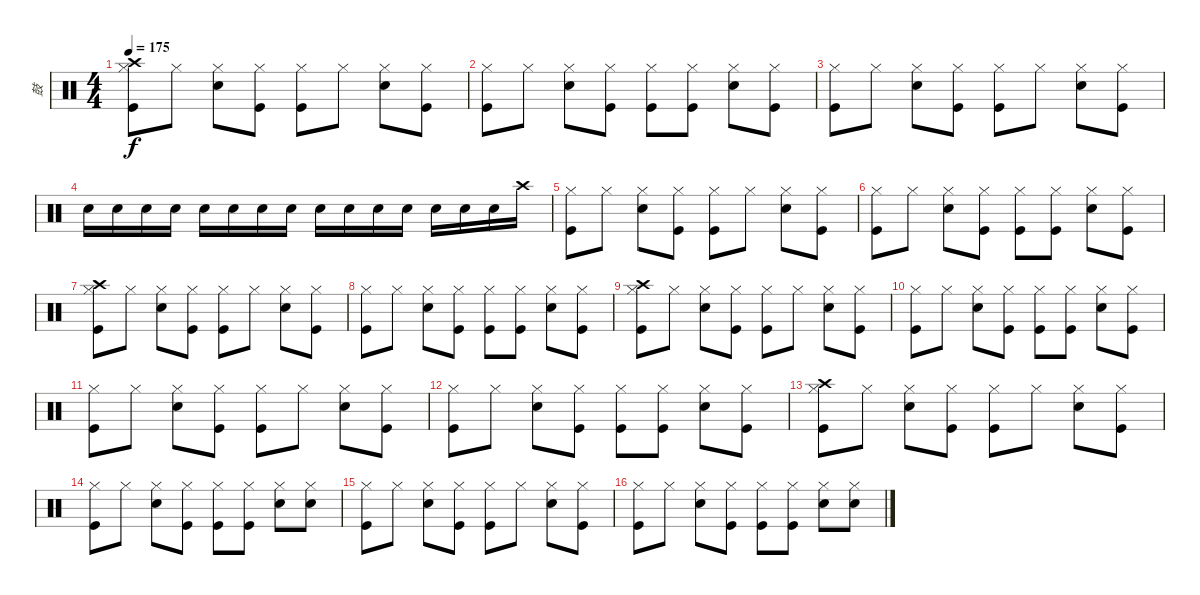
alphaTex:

\track ("鼓" "鼓") {instrument percussion}
\staff {score}
\articulation defaults
\ts (4 4)
\tempo 175
\clef neutral
\ks c
("Crash high (hit)" "Hi-Hat (closed)" "Kick (hit)").8{dy f} "Hi-Hat (closed)".8 ("Hi-Hat (closed)" "Snare (hit) 2").8 ("Hi-Hat (closed)" "Kick (hit)").8 ("Hi-Hat (closed)" "Kick (hit)").8 "Hi-Hat (closed)".8 ("Hi-Hat (closed)" "Snare (hit) 2").8 ("Hi-Hat (closed)" "Kick (hit)").8 |
("Hi-Hat (closed)" "Kick (hit)").8 "Hi-Hat (closed)".8 ("Hi-Hat (closed)" "Snare (hit) 2").8 ("Hi-Hat (closed)" "Kick (hit)").8 ("Hi-Hat (closed)" "Kick (hit)").8 ("Hi-Hat (closed)" "Kick (hit)").8 ("Hi-Hat (closed)" "Snare (hit) 2").8 ("Hi-Hat (closed)" "Kick (hit)").8 |
("Hi-Hat (closed)" "Kick (hit)").8 "Hi-Hat (closed)".8 ("Hi-Hat (closed)" "Snare (hit) 2").8 ("Hi-Hat (closed)" "Kick (hit)").8 ("Hi-Hat (closed)" "Kick (hit)").8 "Hi-Hat (closed)".8 ("Hi-Hat (closed)" "Snare (hit) 2").8 ("Hi-Hat (closed)" "Kick (hit)").8 |
"Snare (hit) 2".16 "Snare (hit) 2".16 "Snare (hit) 2".16 "Snare (hit) 2".16 "Snare (hit) 2".16 "Snare (hit) 2".16 "Snare (hit) 2".16 "Snare (hit) 2".16 "Snare (hit) 2".16 "Snare (hit) 2".16 "Snare (hit) 2".16 "Snare (hit) 2".16 "Snare (hit) 2".16 "Snare (hit) 2".16 "Snare (hit) 2".16 "Crash high (hit)".16 |
("Hi-Hat (closed)" "Kick (hit)").8 "Hi-Hat (closed)".8 ("Hi-Hat (closed)" "Snare (hit) 2").8 ("Hi-Hat (closed)" "Kick (hit)").8 ("Hi-Hat (closed)" "Kick (hit)").8 "Hi-Hat (closed)".8 ("Hi-Hat (closed)" "Snare (hit) 2").8 ("Hi-Hat (closed)" "Kick (hit)").8 |
("Hi-Hat (closed)" "Kick (hit)").8 "Hi-Hat (closed)".8 ("Hi-Hat (closed)" "Snare (hit) 2").8 ("Hi-Hat (closed)" "Kick (hit)").8 ("Hi-Hat (closed)" "Kick (hit)").8 ("Hi-Hat (closed)" "Kick (hit)").8 ("Hi-Hat (closed)" "Snare (hit) 2").8 ("Hi-Hat (closed)" "Kick (hit)").8 |
("Crash high (hit)" "Hi-Hat (closed)" "Kick (hit)").8 "Hi-Hat (closed)".8 ("Hi-Hat (closed)" "Snare (hit) 2").8 ("Hi-Hat (closed)" "Kick (hit)").8 ("Hi-Hat (closed)" "Kick (hit)").8 "Hi-Hat (closed)".8 ("Hi-Hat (closed)" "Snare (hit) 2").8 ("Hi-Hat (closed)" "Kick (hit)").8 |
("Hi-Hat (closed)" "Kick (hit)").8 "Hi-Hat (closed)".8 ("Hi-Hat (closed)" "Snare (hit) 2").8 ("Hi-Hat (closed)" "Kick (hit)").8 ("Hi-Hat (closed)" "Kick (hit)").8 ("Hi-Hat (closed)" "Kick (hit)").8 ("Hi-Hat (closed)" "Snare (hit) 2").8 ("Hi-Hat (closed)" "Kick (hit)").8 |
("Crash high (hit)" "Hi-Hat (closed)" "Kick (hit)").8 "Hi-Hat (closed)".8 ("Hi-Hat (closed)" "Snare (hit) 2").8 ("Hi-Hat (closed)" "Kick (hit)").8 ("Hi-Hat (closed)" "Kick (hit)").8 "Hi-Hat (closed)".8 ("Hi-Hat (closed)" "Snare (hit) 2").8 ("Hi-Hat (closed)" "Kick (hit)").8 |
("Hi-Hat (closed)" "Kick (hit)").8 "Hi-Hat (closed)".8 ("Hi-Hat (closed)" "Snare (hit) 2").8 ("Hi-Hat (closed)" "Kick (hit)").8 ("Hi-Hat (closed)" "Kick (hit)").8 ("Hi-Hat (closed)" "Kick (hit)").8 ("Hi-Hat (closed)" "Snare (hit) 2").8 ("Hi-Hat (closed)" "Kick (hit)").8 |
("Hi-Hat (closed)" "Kick (hit)").8 "Hi-Hat (closed)".8 ("Hi-Hat (closed)" "Snare (hit) 2").8 ("Hi-Hat (closed)" "Kick (hit)").8 ("Hi-Hat (closed)" "Kick (hit)").8 "Hi-Hat (closed)".8 ("Hi-Hat (closed)" "Snare (hit) 2").8 ("Hi-Hat (closed)" "Kick (hit)").8 |
("Hi-Hat (closed)" "Kick (hit)").8 "Hi-Hat (closed)".8 ("Hi-Hat (closed)" "Snare (hit) 2").8 ("Hi-Hat (closed)" "Kick (hit)").8 ("Hi-Hat (closed)" "Kick (hit)").8 ("Hi-Hat (closed)" "Kick (hit)").8 ("Hi-Hat (closed)" "Snare (hit) 2").8 ("Hi-Hat (closed)" "Kick (hit)").8 |
("Crash high (hit)" "Hi-Hat (closed)" "Kick (hit)").8 "Hi-Hat (closed)".8 ("Hi-Hat (closed)" "Snare (hit) 2").8 ("Hi-Hat (closed)" "Kick (hit)").8 ("Hi-Hat (closed)" "Kick (hit)").8 "Hi-Hat (closed)".8 ("Hi-Hat (closed)" "Snare (hit) 2").8 ("Hi-Hat (closed)" "Kick (hit)").8 |
("Hi-Hat (closed)" "Kick (hit)").8 "Hi-Hat (closed)".8 ("Hi-Hat (closed)" "Snare (hit) 2").8 ("Hi-Hat (closed)" "Kick (hit)").8 ("Hi-Hat (closed)" "Kick (hit)").8 ("Hi-Hat (closed)" "Kick (hit)").8 ("Hi-Hat (closed)" "Snare (hit) 2").8 ("Hi-Hat (closed)" "Snare (hit) 2").8 |
("Hi-Hat (closed)" "Kick (hit)").8 "Hi-Hat (closed)".8 ("Hi-Hat (closed)" "Snare (hit) 2").8 ("Hi-Hat (closed)" "Kick (hit)").8 ("Hi-Hat (closed)" "Kick (hit)").8 "Hi-Hat (closed)".8 ("Hi-Hat (closed)" "Snare (hit) 2").8 ("Hi-Hat (closed)" "Kick (hit)").8 |
("Hi-Hat (closed)" "Kick (hit)").8 "Hi-Hat (closed)".8 ("Hi-Hat (closed)" "Snare (hit) 2").8 ("Hi-Hat (closed)" "Kick (hit)").8 ("Hi-Hat (closed)" "Kick (hit)").8 ("Hi-Hat (closed)" "Kick (hit)").8 ("Hi-Hat (closed)" "Snare (hit) 2").8 ("Hi-Hat (closed)" "Snare (hit) 2").8
